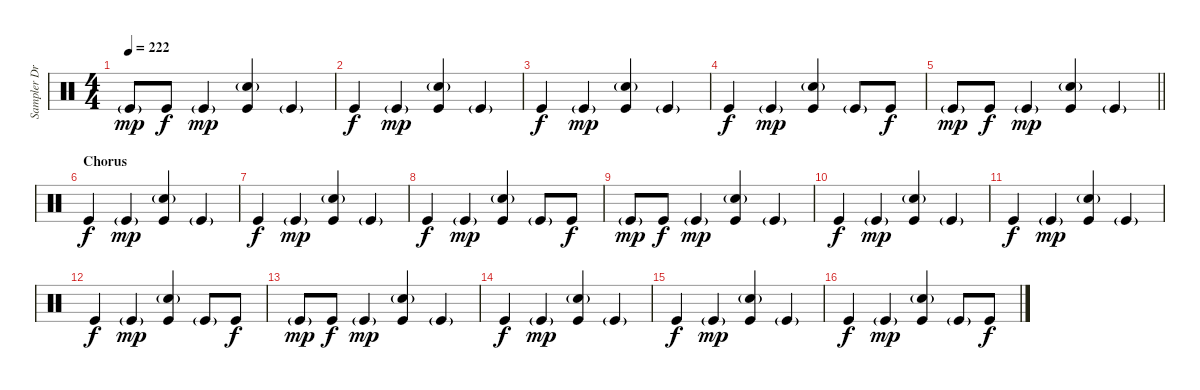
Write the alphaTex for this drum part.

\track ("Sampler Drums 1" "Sampler Dr") {instrument percussion}
\staff {score}
\articulation defaults
\ts (4 4)
\tempo 222
\clef neutral
\ks c "Kick (hit)"{g}.8{dy mp} "Kick (hit)".8{dy f} "Kick (hit)"{g}.4{dy mp}
("Kick (hit)" "Snare (hit) 2"{g}).4 "Kick (hit)"{g}.4 |
"Kick (hit)".4{dy f} "Kick (hit)"{g}.4{dy mp} ("Kick (hit)" "Snare (hit) 2"{g}).4 "Kick (hit)"{g}.4 |
"Kick (hit)".4{dy f} "Kick (hit)"{g}.4{dy mp} ("Kick (hit)" "Snare (hit) 2"{g}).4 "Kick (hit)"{g}.4 |
"Kick (hit)".4{dy f} "Kick (hit)"{g}.4{dy mp} ("Kick (hit)" "Snare (hit) 2"{g}).4 "Kick (hit)"{g}.8 "Kick (hit)".8{dy f} |
\barLineRight lightlight "Kick (hit)"{g}.8{dy mp} "Kick (hit)".8{dy f} "Kick (hit)"{g}.4{dy mp}
("Kick (hit)" "Snare (hit) 2"{g}).4 "Kick (hit)"{g}.4 |
\section ("" "Chorus")
"Kick (hit)".4{dy f} "Kick (hit)"{g}.4{dy mp} ("Kick (hit)" "Snare (hit) 2"{g}).4 "Kick (hit)"{g}.4 |
"Kick (hit)".4{dy f} "Kick (hit)"{g}.4{dy mp} ("Kick (hit)" "Snare (hit) 2"{g}).4 "Kick (hit)"{g}.4 |
"Kick (hit)".4{dy f} "Kick (hit)"{g}.4{dy mp} ("Kick (hit)" "Snare (hit) 2"{g}).4 "Kick (hit)"{g}.8 "Kick (hit)".8{dy f} |
"Kick (hit)"{g}.8{dy mp} "Kick (hit)".8{dy f} "Kick (hit)"{g}.4{dy mp} ("Kick (hit)" "Snare (hit) 2"{g}).4 "Kick (hit)"{g}.4 |
"Kick (hit)".4{dy f} "Kick (hit)"{g}.4{dy mp} ("Kick (hit)" "Snare (hit) 2"{g}).4 "Kick (hit)"{g}.4 |
"Kick (hit)".4{dy f} "Kick (hit)"{g}.4{dy mp} ("Kick (hit)" "Snare (hit) 2"{g}).4 "Kick (hit)"{g}.4 |
"Kick (hit)".4{dy f} "Kick (hit)"{g}.4{dy mp} ("Kick (hit)" "Snare (hit) 2"{g}).4 "Kick (hit)"{g}.8 "Kick (hit)".8{dy f} |
"Kick (hit)"{g}.8{dy mp} "Kick (hit)".8{dy f} "Kick (hit)"{g}.4{dy mp} ("Kick (hit)" "Snare (hit) 2"{g}).4 "Kick (hit)"{g}.4 |
"Kick (hit)".4{dy f} "Kick (hit)"{g}.4{dy mp} ("Kick (hit)" "Snare (hit) 2"{g}).4 "Kick (hit)"{g}.4 |
"Kick (hit)".4{dy f} "Kick (hit)"{g}.4{dy mp} ("Kick (hit)" "Snare (hit) 2"{g}).4 "Kick (hit)"{g}.4 |
"Kick (hit)".4{dy f} "Kick (hit)"{g}.4{dy mp} ("Kick (hit)" "Snare (hit) 2"{g}).4 "Kick (hit)"{g}.8 "Kick (hit)".8{dy f}
